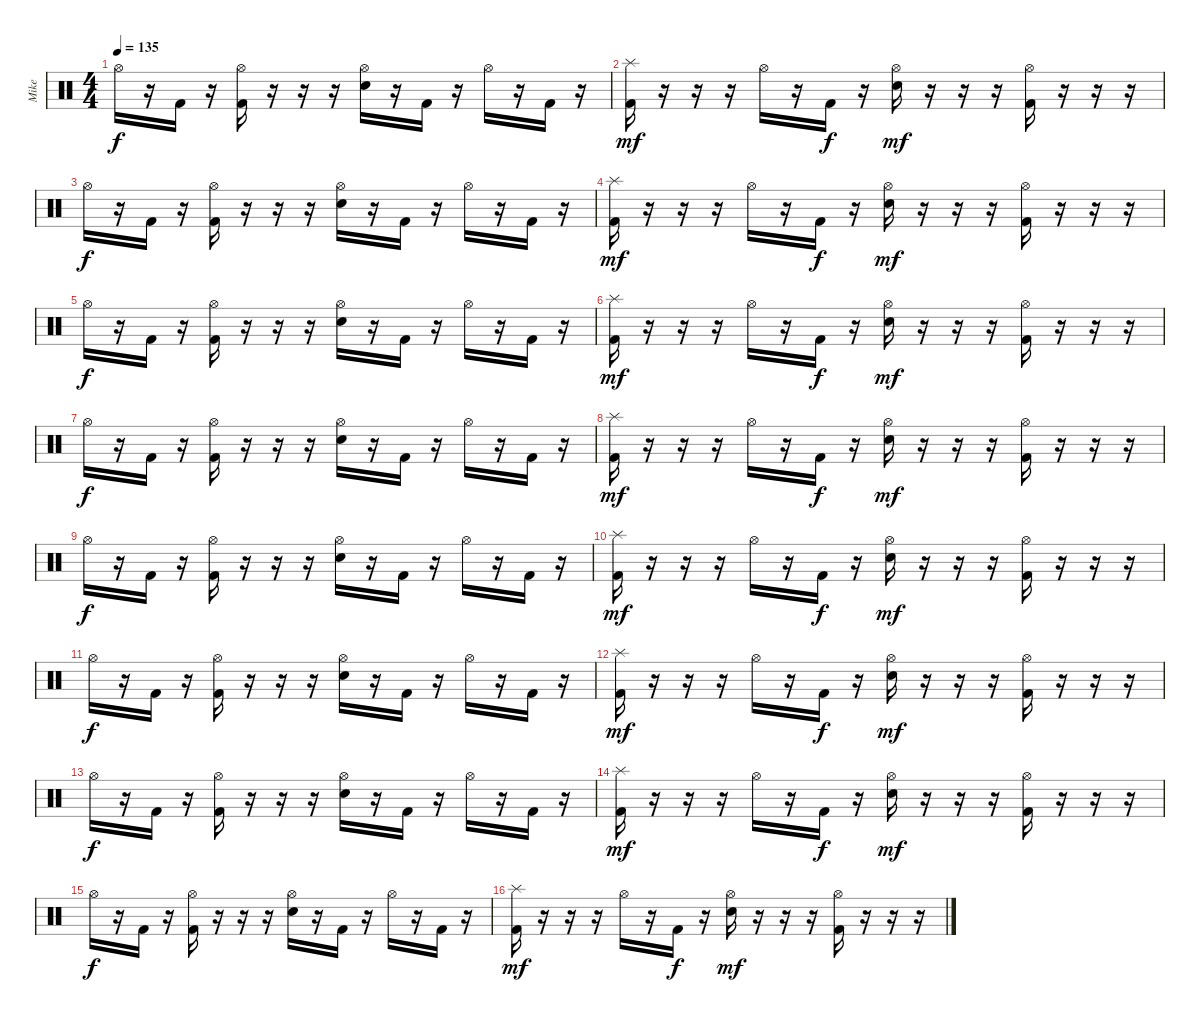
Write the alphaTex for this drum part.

\track ("Mike" "Mike") {instrument percussion}
\staff {score}
\articulation defaults
\ts (4 4)
\tempo 135
\clef neutral
\ks c "Hi-Hat (open)".16{dy f}
r.16 "Kick (hit) 2".16 r.16 ("Hi-Hat (open)" "Kick (hit) 2").16 r.16 r.16 r.16 ("Hi-Hat (open)" "Snare (hit) 2").16 r.16 "Kick (hit) 2".16 r.16 "Hi-Hat (open)".16 r.16 "Kick (hit) 2".16 r.16 |
("Splash (hit)" "Kick (hit) 2").16{dy mf} r.16 r.16 r.16 "Hi-Hat (open)".16 r.16 "Kick (hit) 2".16{dy f} r.16 ("Hi-Hat (open)" "Snare (hit) 2").16{dy mf} r.16 r.16 r.16 ("Hi-Hat (open)" "Kick (hit) 2").16 r.16 r.16 r.16 |
"Hi-Hat (open)".16{dy f} r.16 "Kick (hit) 2".16 r.16 ("Hi-Hat (open)" "Kick (hit) 2").16 r.16 r.16 r.16 ("Hi-Hat (open)" "Snare (hit) 2").16 r.16 "Kick (hit) 2".16 r.16 "Hi-Hat (open)".16 r.16 "Kick (hit) 2".16 r.16 |
("Splash (hit)" "Kick (hit) 2").16{dy mf} r.16 r.16 r.16 "Hi-Hat (open)".16 r.16 "Kick (hit) 2".16{dy f} r.16 ("Hi-Hat (open)" "Snare (hit) 2").16{dy mf} r.16 r.16 r.16 ("Hi-Hat (open)" "Kick (hit) 2").16 r.16 r.16 r.16 |
"Hi-Hat (open)".16{dy f} r.16 "Kick (hit) 2".16 r.16 ("Hi-Hat (open)" "Kick (hit) 2").16 r.16 r.16 r.16 ("Hi-Hat (open)" "Snare (hit) 2").16 r.16 "Kick (hit) 2".16 r.16 "Hi-Hat (open)".16 r.16 "Kick (hit) 2".16 r.16 |
("Splash (hit)" "Kick (hit) 2").16{dy mf} r.16 r.16 r.16 "Hi-Hat (open)".16 r.16 "Kick (hit) 2".16{dy f} r.16 ("Hi-Hat (open)" "Snare (hit) 2").16{dy mf} r.16 r.16 r.16 ("Hi-Hat (open)" "Kick (hit) 2").16 r.16 r.16 r.16 |
"Hi-Hat (open)".16{dy f} r.16 "Kick (hit) 2".16 r.16 ("Hi-Hat (open)" "Kick (hit) 2").16 r.16 r.16 r.16 ("Hi-Hat (open)" "Snare (hit) 2").16 r.16 "Kick (hit) 2".16 r.16 "Hi-Hat (open)".16 r.16 "Kick (hit) 2".16 r.16 |
("Splash (hit)" "Kick (hit) 2").16{dy mf} r.16 r.16 r.16 "Hi-Hat (open)".16 r.16 "Kick (hit) 2".16{dy f} r.16 ("Hi-Hat (open)" "Snare (hit) 2").16{dy mf} r.16 r.16 r.16 ("Hi-Hat (open)" "Kick (hit) 2").16 r.16 r.16 r.16 |
"Hi-Hat (open)".16{dy f} r.16 "Kick (hit) 2".16 r.16 ("Hi-Hat (open)" "Kick (hit) 2").16 r.16 r.16 r.16 ("Hi-Hat (open)" "Snare (hit) 2").16 r.16 "Kick (hit) 2".16 r.16 "Hi-Hat (open)".16 r.16 "Kick (hit) 2".16 r.16 |
("Splash (hit)" "Kick (hit) 2").16{dy mf} r.16 r.16 r.16 "Hi-Hat (open)".16 r.16 "Kick (hit) 2".16{dy f} r.16 ("Hi-Hat (open)" "Snare (hit) 2").16{dy mf} r.16 r.16 r.16 ("Hi-Hat (open)" "Kick (hit) 2").16 r.16 r.16 r.16 |
"Hi-Hat (open)".16{dy f} r.16 "Kick (hit) 2".16 r.16 ("Hi-Hat (open)" "Kick (hit) 2").16 r.16 r.16 r.16 ("Hi-Hat (open)" "Snare (hit) 2").16 r.16 "Kick (hit) 2".16 r.16 "Hi-Hat (open)".16 r.16 "Kick (hit) 2".16 r.16 |
("Splash (hit)" "Kick (hit) 2").16{dy mf} r.16 r.16 r.16 "Hi-Hat (open)".16 r.16 "Kick (hit) 2".16{dy f} r.16 ("Hi-Hat (open)" "Snare (hit) 2").16{dy mf} r.16 r.16 r.16 ("Hi-Hat (open)" "Kick (hit) 2").16 r.16 r.16 r.16 |
"Hi-Hat (open)".16{dy f} r.16 "Kick (hit) 2".16 r.16 ("Hi-Hat (open)" "Kick (hit) 2").16 r.16 r.16 r.16 ("Hi-Hat (open)" "Snare (hit) 2").16 r.16 "Kick (hit) 2".16 r.16 "Hi-Hat (open)".16 r.16 "Kick (hit) 2".16 r.16 |
("Splash (hit)" "Kick (hit) 2").16{dy mf} r.16 r.16 r.16 "Hi-Hat (open)".16 r.16 "Kick (hit) 2".16{dy f} r.16 ("Hi-Hat (open)" "Snare (hit) 2").16{dy mf} r.16 r.16 r.16 ("Hi-Hat (open)" "Kick (hit) 2").16 r.16 r.16 r.16 |
"Hi-Hat (open)".16{dy f} r.16 "Kick (hit) 2".16 r.16 ("Hi-Hat (open)" "Kick (hit) 2").16 r.16 r.16 r.16 ("Hi-Hat (open)" "Snare (hit) 2").16 r.16 "Kick (hit) 2".16 r.16 "Hi-Hat (open)".16 r.16 "Kick (hit) 2".16 r.16 |
("Splash (hit)" "Kick (hit) 2").16{dy mf} r.16 r.16 r.16 "Hi-Hat (open)".16 r.16 "Kick (hit) 2".16{dy f} r.16 ("Hi-Hat (open)" "Snare (hit) 2").16{dy mf} r.16 r.16 r.16 ("Hi-Hat (open)" "Kick (hit) 2").16 r.16 r.16 r.16
